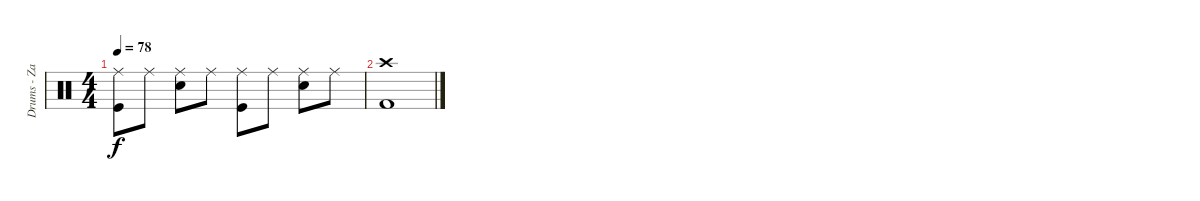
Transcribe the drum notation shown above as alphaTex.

\track ("Drums - Zakk Starkey" "Drums - Za") {instrument percussion}
\staff {score}
\articulation defaults
\ts (4 4)
\tempo 78
\clef neutral
\ks c
("Ride (middle)" "Kick (hit)").8{dy f} "Ride (middle)".8 ("Ride (middle)" "Snare (hit) 2").8 "Ride (middle)".8 ("Ride (middle)" "Kick (hit)").8 "Ride (middle)".8 ("Ride (middle)" "Snare (hit) 2").8 "Ride (middle)".8 |
("Crash high (hit)" "Kick (hit) 2").1
